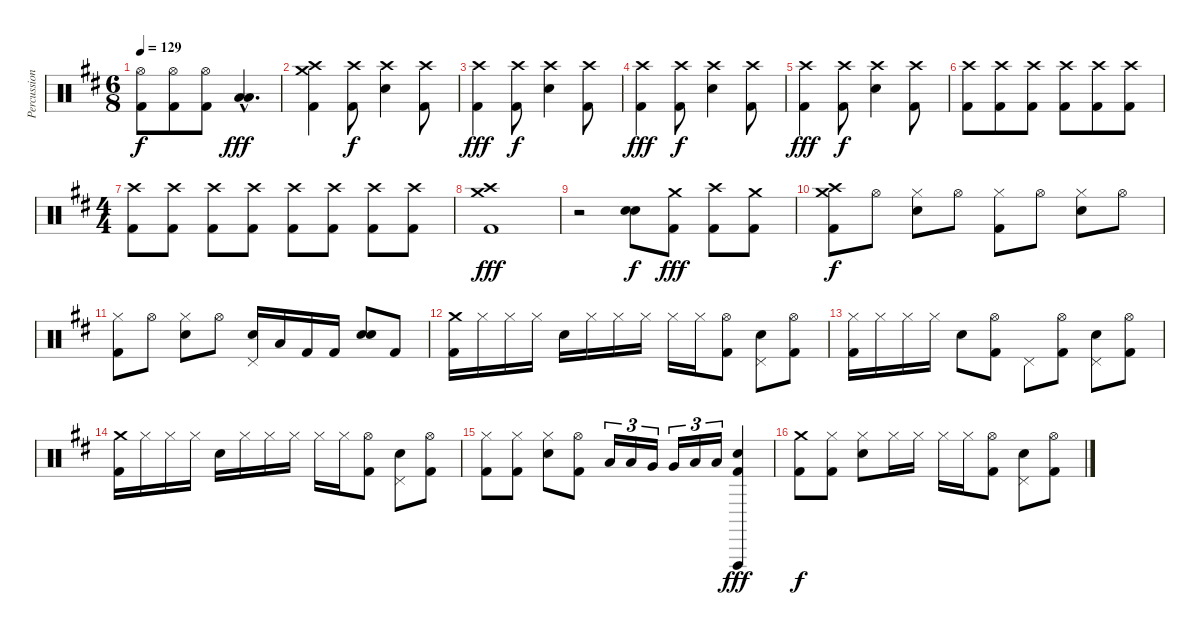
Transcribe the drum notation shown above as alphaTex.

\track ("Percussion" "Percussion") {instrument percussion}
\staff {score}
\articulation defaults
\ts (6 8)
\tempo 129
\clef neutral
\ks d
("Hi-Hat (open)" "Kick (hit) 2").8{dy f} ("Hi-Hat (open)" "Kick (hit) 2").8 ("Hi-Hat (open)" "Kick (hit) 2").8 ("Low Floor Tom (hit)"{hac} "Low Floor Tom (hit)"{hac}).4{d bd 240 dy fff} |
("Crash medium (hit)" "Crash high (hit)" "Kick (hit) 2").4 ("Crash high (hit)" "Kick (hit) 2").8{dy f} ("Crash high (hit)" "Electric Snare (hit)").4 ("Crash high (hit)" "Kick (hit) 2").8 |
("Crash high (hit)" "Kick (hit) 2").4{dy fff} ("Crash high (hit)" "Kick (hit) 2").8{dy f} ("Crash high (hit)" "Electric Snare (hit)").4 ("Crash high (hit)" "Kick (hit) 2").8 |
("Crash high (hit)" "Kick (hit) 2").4{dy fff} ("Crash high (hit)" "Kick (hit) 2").8{dy f} ("Crash high (hit)" "Electric Snare (hit)").4 ("Crash high (hit)" "Kick (hit) 2").8 |
("Crash high (hit)" "Kick (hit) 2").4{dy fff} ("Crash high (hit)" "Kick (hit) 2").8{dy f} ("Crash high (hit)" "Electric Snare (hit)").4 ("Crash high (hit)" "Kick (hit) 2").8 |
("Crash high (hit)" "Kick (hit) 2").8 ("Crash high (hit)" "Kick (hit) 2").8 ("Crash high (hit)" "Kick (hit) 2").8 ("Crash high (hit)" "Kick (hit) 2").8 ("Crash high (hit)" "Kick (hit) 2").8 ("Crash high (hit)" "Kick (hit) 2").8 |
\ts (4 4)
("Crash high (hit)" "Kick (hit) 2").8 ("Crash high (hit)" "Kick (hit) 2").8 ("Crash high (hit)" "Kick (hit) 2").8 ("Crash high (hit)" "Kick (hit) 2").8 ("Crash high (hit)" "Kick (hit) 2").8 ("Crash high (hit)" "Kick (hit) 2").8 ("Crash high (hit)" "Kick (hit) 2").8 ("Crash high (hit)" "Kick (hit) 2").8 |
("Crash high (hit)" "Crash medium (hit)" "Kick (hit) 2").1{dy fff} |
r.2 ("Electric Snare (hit)" "Electric Snare (hit)").8{bd 240 dy f} ("Crash medium (hit)" "Kick (hit) 2").8{dy fff} ("Crash high (hit)" "Kick (hit) 2").8 ("Crash medium (hit)" "Kick (hit) 2").8 |
("Crash medium (hit)" "Crash high (hit)" "Kick (hit) 2").8{dy f} "Hi-Hat (open)".8 ("Hi-Hat (closed)" "Electric Snare (hit)").8 "Hi-Hat (open)".8 ("Hi-Hat (closed)" "Kick (hit) 2").8 "Hi-Hat (open)".8 ("Hi-Hat (closed)" "Electric Snare (hit)").8 "Hi-Hat (open)".8 |
("Hi-Hat (closed)" "Kick (hit) 2").8 "Hi-Hat (open)".8 ("Hi-Hat (closed)" "Electric Snare (hit)").8 "Hi-Hat (open)".8 ("Pedal Hi-Hat (hit)" "Electric Snare (hit)").16 "Low Floor Tom (hit)".16 "Kick (hit) 2".16 "Kick (hit) 2".16 ("Electric Snare (hit)" "Electric Snare (hit)").8{bd 240} "Kick (hit) 2".8 |
("Crash medium (hit)" "Kick (hit) 2").16 "Hi-Hat (closed)".16 "Hi-Hat (closed)".16 "Hi-Hat (closed)".16 "Electric Snare (hit)".16 "Hi-Hat (closed)".16 "Hi-Hat (closed)".16 "Hi-Hat (closed)".16 "Hi-Hat (closed)".16 "Hi-Hat (closed)".16 ("Hi-Hat (open)" "Kick (hit) 2").8 ("Pedal Hi-Hat (hit)" "Electric Snare (hit)").8 ("Hi-Hat (open)" "Kick (hit) 2").8 |
("Hi-Hat (closed)" "Kick (hit) 2").16 "Hi-Hat (closed)".16 "Hi-Hat (closed)".16 "Hi-Hat (closed)".16 "Electric Snare (hit)".8 ("Hi-Hat (open)" "Kick (hit) 2").8 "Pedal Hi-Hat (hit)".8 ("Hi-Hat (open)" "Kick (hit) 2").8 ("Pedal Hi-Hat (hit)" "Electric Snare (hit)").8 ("Hi-Hat (open)" "Kick (hit) 2").8 |
("Crash medium (hit)" "Kick (hit) 2").16 "Hi-Hat (closed)".16 "Hi-Hat (closed)".16 "Hi-Hat (closed)".16 "Electric Snare (hit)".16 "Hi-Hat (closed)".16 "Hi-Hat (closed)".16 "Hi-Hat (closed)".16 "Hi-Hat (closed)".16 "Hi-Hat (closed)".16 ("Hi-Hat (open)" "Kick (hit) 2").8 ("Pedal Hi-Hat (hit)" "Electric Snare (hit)").8 ("Hi-Hat (open)" "Kick (hit) 2").8 |
("Hi-Hat (closed)" "Kick (hit) 2").8 ("Hi-Hat (closed)" "Kick (hit) 2").8 ("Hi-Hat (closed)" "Electric Snare (hit)").8 ("Hi-Hat (open)" "Kick (hit) 2").8 "Low Tom (hit)".16{tu (3 2)} "Low Tom (hit)".16{tu (3 2)} "Very Low Tom (hit)".16{tu (3 2)} "Very Low Tom (hit)".16{tu (3 2)} "Low Floor Tom (hit)".16{tu (3 2)} "Low Floor Tom (hit)".16{tu (3 2)} ("Vibraslap (hit)" "Kick (hit) 2" "Electric Snare (hit)").4{dy fff} |
("Crash medium (hit)" "Kick (hit) 2").8{dy f} ("Hi-Hat (closed)" "Kick (hit) 2").8 ("Hi-Hat (closed)" "Electric Snare (hit)").8 "Hi-Hat (closed)".16 "Hi-Hat (closed)".16 "Hi-Hat (closed)".16 "Hi-Hat (closed)".16 ("Hi-Hat (open)" "Kick (hit) 2").8 ("Pedal Hi-Hat (hit)" "Electric Snare (hit)").8 ("Hi-Hat (open)" "Kick (hit) 2").8
